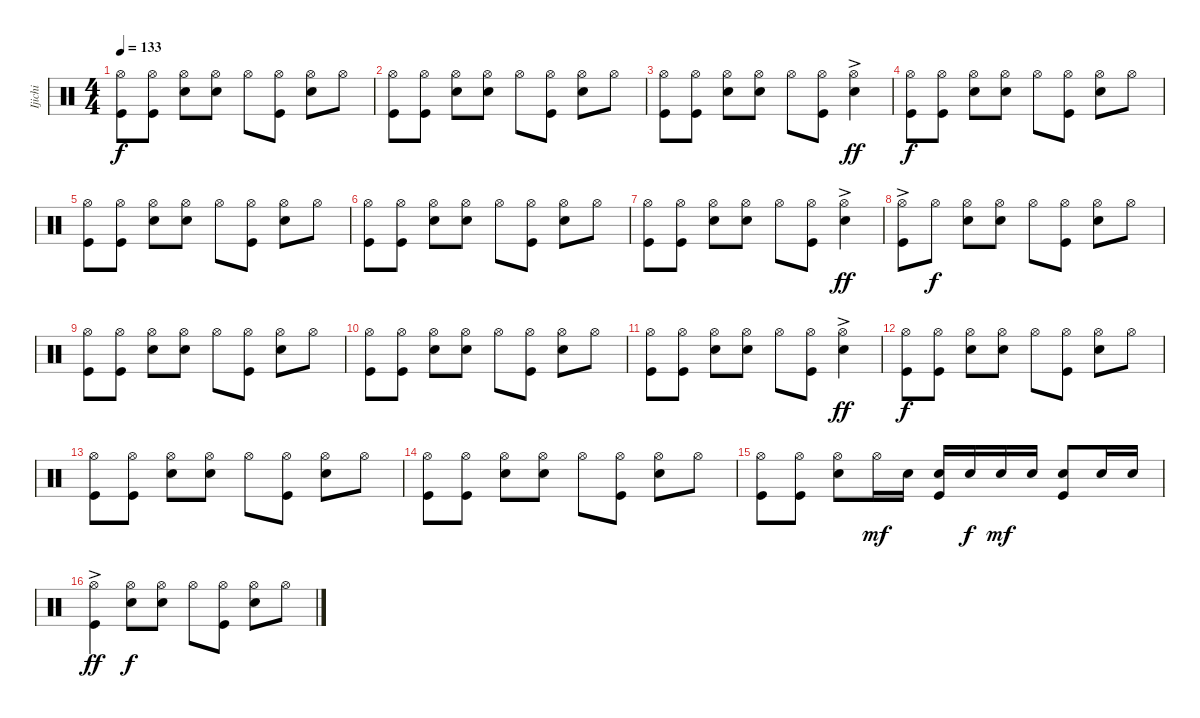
\track ("Ijichi" "Ijichi") {instrument percussion}
\staff {score}
\articulation defaults
\ts (4 4)
\tempo 133
\clef neutral
\ks c
("Hi-Hat (open)" "Kick (hit)").8{dy f} ("Hi-Hat (open)" "Kick (hit)").8 ("Hi-Hat (open)" "Snare (hit) 2").8 ("Hi-Hat (open)" "Snare (hit) 2").8 "Hi-Hat (open)".8 ("Hi-Hat (open)" "Kick (hit)").8 ("Hi-Hat (open)" "Snare (hit) 2").8 "Hi-Hat (open)".8 |
("Hi-Hat (open)" "Kick (hit)").8 ("Hi-Hat (open)" "Kick (hit)").8 ("Hi-Hat (open)" "Snare (hit) 2").8 ("Hi-Hat (open)" "Snare (hit) 2").8 "Hi-Hat (open)".8 ("Hi-Hat (open)" "Kick (hit)").8 ("Hi-Hat (open)" "Snare (hit) 2").8 "Hi-Hat (open)".8 |
("Hi-Hat (open)" "Kick (hit)").8 ("Hi-Hat (open)" "Kick (hit)").8 ("Hi-Hat (open)" "Snare (hit) 2").8 ("Hi-Hat (open)" "Snare (hit) 2").8 "Hi-Hat (open)".8 ("Hi-Hat (open)" "Kick (hit)").8 ("Hi-Hat (open)"{ac} "Snare (hit) 2").4{dy ff} |
("Hi-Hat (open)" "Kick (hit)").8{dy f} ("Hi-Hat (open)" "Kick (hit)").8 ("Hi-Hat (open)" "Snare (hit) 2").8 ("Hi-Hat (open)" "Snare (hit) 2").8 "Hi-Hat (open)".8 ("Hi-Hat (open)" "Kick (hit)").8 ("Hi-Hat (open)" "Snare (hit) 2").8 "Hi-Hat (open)".8 |
("Hi-Hat (open)" "Kick (hit)").8 ("Hi-Hat (open)" "Kick (hit)").8 ("Hi-Hat (open)" "Snare (hit) 2").8 ("Hi-Hat (open)" "Snare (hit) 2").8 "Hi-Hat (open)".8 ("Hi-Hat (open)" "Kick (hit)").8 ("Hi-Hat (open)" "Snare (hit) 2").8 "Hi-Hat (open)".8 |
("Hi-Hat (open)" "Kick (hit)").8 ("Hi-Hat (open)" "Kick (hit)").8 ("Hi-Hat (open)" "Snare (hit) 2").8 ("Hi-Hat (open)" "Snare (hit) 2").8 "Hi-Hat (open)".8 ("Hi-Hat (open)" "Kick (hit)").8 ("Hi-Hat (open)" "Snare (hit) 2").8 "Hi-Hat (open)".8 |
("Hi-Hat (open)" "Kick (hit)").8 ("Hi-Hat (open)" "Kick (hit)").8 ("Hi-Hat (open)" "Snare (hit) 2").8 ("Hi-Hat (open)" "Snare (hit) 2").8 "Hi-Hat (open)".8 ("Hi-Hat (open)" "Kick (hit)").8 ("Hi-Hat (open)"{ac} "Snare (hit) 2").4{dy ff} |
("Hi-Hat (open)"{ac} "Kick (hit)").8 "Hi-Hat (open)".8{dy f} ("Hi-Hat (open)" "Snare (hit) 2").8 ("Hi-Hat (open)" "Snare (hit) 2").8 "Hi-Hat (open)".8 ("Hi-Hat (open)" "Kick (hit)").8 ("Hi-Hat (open)" "Snare (hit) 2").8 "Hi-Hat (open)".8 |
("Hi-Hat (open)" "Kick (hit)").8 ("Hi-Hat (open)" "Kick (hit)").8 ("Hi-Hat (open)" "Snare (hit) 2").8 ("Hi-Hat (open)" "Snare (hit) 2").8 "Hi-Hat (open)".8 ("Hi-Hat (open)" "Kick (hit)").8 ("Hi-Hat (open)" "Snare (hit) 2").8 "Hi-Hat (open)".8 |
("Hi-Hat (open)" "Kick (hit)").8 ("Hi-Hat (open)" "Kick (hit)").8 ("Hi-Hat (open)" "Snare (hit) 2").8 ("Hi-Hat (open)" "Snare (hit) 2").8 "Hi-Hat (open)".8 ("Hi-Hat (open)" "Kick (hit)").8 ("Hi-Hat (open)" "Snare (hit) 2").8 "Hi-Hat (open)".8 |
("Hi-Hat (open)" "Kick (hit)").8 ("Hi-Hat (open)" "Kick (hit)").8 ("Hi-Hat (open)" "Snare (hit) 2").8 ("Hi-Hat (open)" "Snare (hit) 2").8 "Hi-Hat (open)".8 ("Hi-Hat (open)" "Kick (hit)").8 ("Hi-Hat (open)"{ac} "Snare (hit) 2").4{dy ff} |
("Hi-Hat (open)" "Kick (hit)").8{dy f} ("Hi-Hat (open)" "Kick (hit)").8 ("Hi-Hat (open)" "Snare (hit) 2").8 ("Hi-Hat (open)" "Snare (hit) 2").8 "Hi-Hat (open)".8 ("Hi-Hat (open)" "Kick (hit)").8 ("Hi-Hat (open)" "Snare (hit) 2").8 "Hi-Hat (open)".8 |
("Hi-Hat (open)" "Kick (hit)").8 ("Hi-Hat (open)" "Kick (hit)").8 ("Hi-Hat (open)" "Snare (hit) 2").8 ("Hi-Hat (open)" "Snare (hit) 2").8 "Hi-Hat (open)".8 ("Hi-Hat (open)" "Kick (hit)").8 ("Hi-Hat (open)" "Snare (hit) 2").8 "Hi-Hat (open)".8 |
("Hi-Hat (open)" "Kick (hit)").8 ("Hi-Hat (open)" "Kick (hit)").8 ("Hi-Hat (open)" "Snare (hit) 2").8 ("Hi-Hat (open)" "Snare (hit) 2").8 "Hi-Hat (open)".8 ("Hi-Hat (open)" "Kick (hit)").8 ("Hi-Hat (open)" "Snare (hit) 2").8 "Hi-Hat (open)".8 |
("Hi-Hat (open)" "Kick (hit)").8 ("Hi-Hat (open)" "Kick (hit)").8 ("Hi-Hat (open)" "Snare (hit) 2").8 "Hi-Hat (open)".16{dy mf} "Snare (hit) 2".16 ("Snare (hit) 2" "Kick (hit)").16 "Snare (hit) 2".16{dy f} "Snare (hit) 2".16{dy mf} "Snare (hit) 2".16 ("Snare (hit) 2" "Kick (hit)").8 "Snare (hit) 2".16 "Snare (hit) 2".16 |
("Hi-Hat (open)"{ac} "Kick (hit)").4{dy ff} ("Hi-Hat (open)" "Snare (hit) 2").8{dy f} ("Hi-Hat (open)" "Snare (hit) 2").8 "Hi-Hat (open)".8 ("Hi-Hat (open)" "Kick (hit)").8 ("Hi-Hat (open)" "Snare (hit) 2").8 "Hi-Hat (open)".8
